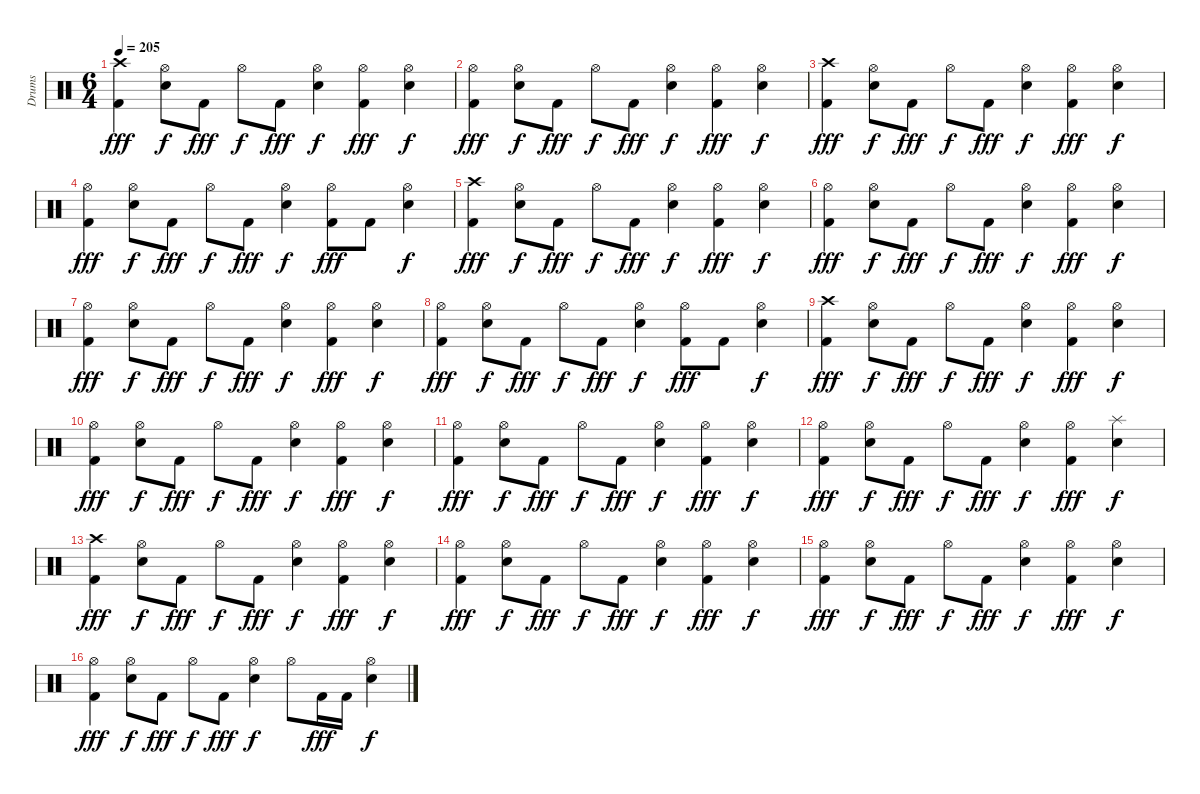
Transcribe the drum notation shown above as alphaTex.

\track ("Drums" "Drums") {instrument percussion}
\staff {score}
\articulation defaults
\ts (6 4)
\tempo 205
\clef neutral
\ks c
("Crash high (hit)" "Kick (hit) 2").4{dy fff} ("Hi-Hat (open)" "Snare (hit) 2").8{dy f} "Kick (hit) 2".8{dy fff} "Hi-Hat (open)".8{dy f} "Kick (hit) 2".8{dy fff} ("Hi-Hat (open)" "Snare (hit) 2").4{dy f} ("Hi-Hat (open)" "Kick (hit) 2").4{dy fff} ("Hi-Hat (open)" "Snare (hit) 2").4{dy f} |
("Hi-Hat (open)" "Kick (hit) 2").4{dy fff} ("Hi-Hat (open)" "Snare (hit) 2").8{dy f} "Kick (hit) 2".8{dy fff} "Hi-Hat (open)".8{dy f} "Kick (hit) 2".8{dy fff} ("Hi-Hat (open)" "Snare (hit) 2").4{dy f} ("Hi-Hat (open)" "Kick (hit) 2").4{dy fff} ("Hi-Hat (open)" "Snare (hit) 2").4{dy f} |
("Crash high (hit)" "Kick (hit) 2").4{dy fff} ("Hi-Hat (open)" "Snare (hit) 2").8{dy f} "Kick (hit) 2".8{dy fff} "Hi-Hat (open)".8{dy f} "Kick (hit) 2".8{dy fff} ("Hi-Hat (open)" "Snare (hit) 2").4{dy f} ("Hi-Hat (open)" "Kick (hit) 2").4{dy fff} ("Hi-Hat (open)" "Snare (hit) 2").4{dy f} |
("Hi-Hat (open)" "Kick (hit) 2").4{dy fff} ("Hi-Hat (open)" "Snare (hit) 2").8{dy f} "Kick (hit) 2".8{dy fff} "Hi-Hat (open)".8{dy f} "Kick (hit) 2".8{dy fff} ("Hi-Hat (open)" "Snare (hit) 2").4{dy f} ("Hi-Hat (open)" "Kick (hit) 2").8{dy fff} "Kick (hit) 2".8 ("Hi-Hat (open)" "Snare (hit) 2").4{dy f} |
("Crash high (hit)" "Kick (hit) 2").4{dy fff} ("Hi-Hat (open)" "Snare (hit) 2").8{dy f} "Kick (hit) 2".8{dy fff} "Hi-Hat (open)".8{dy f} "Kick (hit) 2".8{dy fff} ("Hi-Hat (open)" "Snare (hit) 2").4{dy f} ("Hi-Hat (open)" "Kick (hit) 2").4{dy fff} ("Hi-Hat (open)" "Snare (hit) 2").4{dy f} |
("Hi-Hat (open)" "Kick (hit) 2").4{dy fff} ("Hi-Hat (open)" "Snare (hit) 2").8{dy f} "Kick (hit) 2".8{dy fff} "Hi-Hat (open)".8{dy f} "Kick (hit) 2".8{dy fff} ("Hi-Hat (open)" "Snare (hit) 2").4{dy f} ("Hi-Hat (open)" "Kick (hit) 2").4{dy fff} ("Hi-Hat (open)" "Snare (hit) 2").4{dy f} |
("Hi-Hat (open)" "Kick (hit) 2").4{dy fff} ("Hi-Hat (open)" "Snare (hit) 2").8{dy f} "Kick (hit) 2".8{dy fff} "Hi-Hat (open)".8{dy f} "Kick (hit) 2".8{dy fff} ("Hi-Hat (open)" "Snare (hit) 2").4{dy f} ("Hi-Hat (open)" "Kick (hit) 2").4{dy fff} ("Hi-Hat (open)" "Snare (hit) 2").4{dy f} |
("Hi-Hat (open)" "Kick (hit) 2").4{dy fff} ("Hi-Hat (open)" "Snare (hit) 2").8{dy f} "Kick (hit) 2".8{dy fff} "Hi-Hat (open)".8{dy f} "Kick (hit) 2".8{dy fff} ("Hi-Hat (open)" "Snare (hit) 2").4{dy f} ("Hi-Hat (open)" "Kick (hit) 2").8{dy fff} "Kick (hit) 2".8 ("Hi-Hat (open)" "Snare (hit) 2").4{dy f} |
("Crash high (hit)" "Kick (hit) 2").4{dy fff} ("Hi-Hat (open)" "Snare (hit) 2").8{dy f} "Kick (hit) 2".8{dy fff} "Hi-Hat (open)".8{dy f} "Kick (hit) 2".8{dy fff} ("Hi-Hat (open)" "Snare (hit) 2").4{dy f} ("Hi-Hat (open)" "Kick (hit) 2").4{dy fff} ("Hi-Hat (open)" "Snare (hit) 2").4{dy f} |
("Hi-Hat (open)" "Kick (hit) 2").4{dy fff} ("Hi-Hat (open)" "Snare (hit) 2").8{dy f} "Kick (hit) 2".8{dy fff} "Hi-Hat (open)".8{dy f} "Kick (hit) 2".8{dy fff} ("Hi-Hat (open)" "Snare (hit) 2").4{dy f} ("Hi-Hat (open)" "Kick (hit) 2").4{dy fff} ("Hi-Hat (open)" "Snare (hit) 2").4{dy f} |
("Hi-Hat (open)" "Kick (hit) 2").4{dy fff} ("Hi-Hat (open)" "Snare (hit) 2").8{dy f} "Kick (hit) 2".8{dy fff} "Hi-Hat (open)".8{dy f} "Kick (hit) 2".8{dy fff} ("Hi-Hat (open)" "Snare (hit) 2").4{dy f} ("Hi-Hat (open)" "Kick (hit) 2").4{dy fff} ("Hi-Hat (open)" "Snare (hit) 2").4{dy f} |
("Hi-Hat (open)" "Kick (hit) 2").4{dy fff} ("Hi-Hat (open)" "Snare (hit) 2").8{dy f} "Kick (hit) 2".8{dy fff} "Hi-Hat (open)".8{dy f} "Kick (hit) 2".8{dy fff} ("Hi-Hat (open)" "Snare (hit) 2").4{dy f} ("Hi-Hat (open)" "Kick (hit) 2").4{dy fff} ("Splash (hit)" "Snare (hit) 2").4{dy f} |
("Crash high (hit)" "Kick (hit) 2").4{dy fff} ("Hi-Hat (open)" "Snare (hit) 2").8{dy f} "Kick (hit) 2".8{dy fff} "Hi-Hat (open)".8{dy f} "Kick (hit) 2".8{dy fff} ("Hi-Hat (open)" "Snare (hit) 2").4{dy f} ("Hi-Hat (open)" "Kick (hit) 2").4{dy fff} ("Hi-Hat (open)" "Snare (hit) 2").4{dy f} |
("Hi-Hat (open)" "Kick (hit) 2").4{dy fff} ("Hi-Hat (open)" "Snare (hit) 2").8{dy f} "Kick (hit) 2".8{dy fff} "Hi-Hat (open)".8{dy f} "Kick (hit) 2".8{dy fff} ("Hi-Hat (open)" "Snare (hit) 2").4{dy f} ("Hi-Hat (open)" "Kick (hit) 2").4{dy fff} ("Hi-Hat (open)" "Snare (hit) 2").4{dy f} |
("Hi-Hat (open)" "Kick (hit) 2").4{dy fff} ("Hi-Hat (open)" "Snare (hit) 2").8{dy f} "Kick (hit) 2".8{dy fff} "Hi-Hat (open)".8{dy f} "Kick (hit) 2".8{dy fff} ("Hi-Hat (open)" "Snare (hit) 2").4{dy f} ("Hi-Hat (open)" "Kick (hit) 2").4{dy fff} ("Hi-Hat (open)" "Snare (hit) 2").4{dy f} |
("Hi-Hat (open)" "Kick (hit) 2").4{dy fff} ("Hi-Hat (open)" "Snare (hit) 2").8{dy f} "Kick (hit) 2".8{dy fff} "Hi-Hat (open)".8{dy f} "Kick (hit) 2".8{dy fff} ("Hi-Hat (open)" "Snare (hit) 2").4{dy f} "Hi-Hat (open)".8 "Kick (hit) 2".16{dy fff} "Kick (hit) 2".16 ("Hi-Hat (open)" "Snare (hit) 2").4{dy f}
